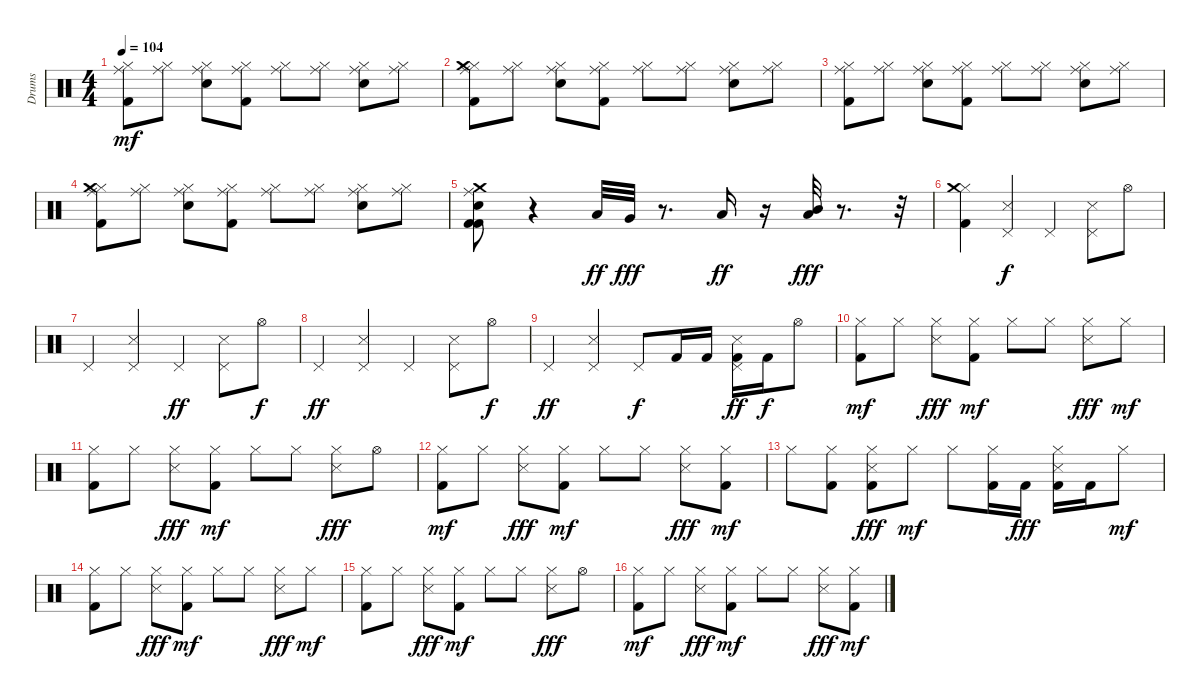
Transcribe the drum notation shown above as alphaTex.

\track ("Drums" "Drums") {instrument percussion}
\staff {score}
\articulation defaults
\ts (4 4)
\tempo 104
\clef neutral
\ks c
("Kick (hit) 2" "Hi-Hat (closed)" "Ride (middle)").8{dy mf} ("Hi-Hat (closed)" "Ride (middle)").8 ("Snare (hit) 2" "Hi-Hat (closed)" "Ride (middle)").8 ("Kick (hit) 2" "Hi-Hat (closed)" "Ride (middle)").8 ("Hi-Hat (closed)" "Ride (middle)").8 ("Hi-Hat (closed)" "Ride (middle)").8 ("Snare (hit) 2" "Hi-Hat (closed)" "Ride (middle)").8 ("Hi-Hat (closed)" "Ride (middle)").8 |
("Kick (hit) 2" "Hi-Hat (closed)" "Crash medium (hit)" "Ride (middle)").8 ("Hi-Hat (closed)" "Ride (middle)").8 ("Snare (hit) 2" "Hi-Hat (closed)" "Ride (middle)").8 ("Kick (hit) 2" "Hi-Hat (closed)" "Ride (middle)").8 ("Hi-Hat (closed)" "Ride (middle)").8 ("Hi-Hat (closed)" "Ride (middle)").8 ("Snare (hit) 2" "Hi-Hat (closed)" "Ride (middle)").8 ("Hi-Hat (closed)" "Ride (middle)").8 |
("Kick (hit) 2" "Hi-Hat (closed)" "Ride (middle)").8 ("Hi-Hat (closed)" "Ride (middle)").8 ("Snare (hit) 2" "Hi-Hat (closed)" "Ride (middle)").8 ("Kick (hit) 2" "Hi-Hat (closed)" "Ride (middle)").8 ("Hi-Hat (closed)" "Ride (middle)").8 ("Hi-Hat (closed)" "Ride (middle)").8 ("Snare (hit) 2" "Hi-Hat (closed)" "Ride (middle)").8 ("Hi-Hat (closed)" "Ride (middle)").8 |
("Kick (hit) 2" "Hi-Hat (closed)" "Crash medium (hit)" "Ride (middle)").8 ("Hi-Hat (closed)" "Ride (middle)").8 ("Snare (hit) 2" "Hi-Hat (closed)" "Ride (middle)").8 ("Kick (hit) 2" "Hi-Hat (closed)" "Ride (middle)").8 ("Hi-Hat (closed)" "Ride (middle)").8 ("Hi-Hat (closed)" "Ride (middle)").8 ("Snare (hit) 2" "Hi-Hat (closed)" "Ride (middle)").8 ("Hi-Hat (closed)" "Ride (middle)").8 |
("Kick (hit) 2" "Crash medium (hit)" "Kick (hit) 2" "Snare (hit) 2" "Ride (middle)").8 r.4 "Low Floor Tom (hit)".32{dy ff} "Very Low Tom (hit)".32{dy fff} r.8{d} "Low Tom (hit)".16{dy ff} r.16 ("Low Tom (hit)" "Mid Tom (hit)").32{dy fff} r.8{d} r.32 |
("Hi-Hat (closed)" "Crash medium (hit)" "Kick (hit) 2").4 ("Pedal Hi-Hat (hit)" "Metronome (hit)").4{dy f} "Pedal Hi-Hat (hit)".4 ("Pedal Hi-Hat (hit)" "Metronome (hit)").8 "Hi-Hat (open)".8 |
"Pedal Hi-Hat (hit)".4 ("Pedal Hi-Hat (hit)" "Metronome (hit)").4 "Pedal Hi-Hat (hit)".4{dy ff} ("Pedal Hi-Hat (hit)" "Metronome (hit)").8 "Hi-Hat (open)".8{dy f} |
"Pedal Hi-Hat (hit)".4{dy ff} ("Pedal Hi-Hat (hit)" "Metronome (hit)").4 "Pedal Hi-Hat (hit)".4 ("Pedal Hi-Hat (hit)" "Metronome (hit)").8 "Hi-Hat (open)".8{dy f} |
"Pedal Hi-Hat (hit)".4{dy ff} ("Pedal Hi-Hat (hit)" "Metronome (hit)").4 "Pedal Hi-Hat (hit)".8{dy f} "Kick (hit) 2".16 "Kick (hit) 2".16 ("Pedal Hi-Hat (hit)" "Metronome (hit)" "Kick (hit) 2").16{dy ff} "Kick (hit) 2".16{dy f} "Hi-Hat (open)".8 |
("Kick (hit) 2" "Hi-Hat (closed)").8{dy mf} "Hi-Hat (closed)".8 ("Hi-Hat (closed)" "Metronome (hit)").8{dy fff} ("Kick (hit) 2" "Hi-Hat (closed)").8{dy mf} "Hi-Hat (closed)".8 "Hi-Hat (closed)".8 ("Hi-Hat (closed)" "Metronome (hit)").8{dy fff} "Hi-Hat (closed)".8{dy mf} |
("Kick (hit) 2" "Hi-Hat (closed)").8 "Hi-Hat (closed)".8 ("Hi-Hat (closed)" "Metronome (hit)").8{dy fff} ("Kick (hit) 2" "Hi-Hat (closed)").8{dy mf} "Hi-Hat (closed)".8 "Hi-Hat (closed)".8 ("Hi-Hat (closed)" "Metronome (hit)").8{dy fff} "Hi-Hat (open)".8 |
("Kick (hit) 2" "Hi-Hat (closed)").8{dy mf} "Hi-Hat (closed)".8 ("Hi-Hat (closed)" "Metronome (hit)").8{dy fff} ("Kick (hit) 2" "Hi-Hat (closed)").8{dy mf} "Hi-Hat (closed)".8 "Hi-Hat (closed)".8 ("Hi-Hat (closed)" "Metronome (hit)").8{dy fff} ("Kick (hit) 2" "Hi-Hat (closed)").8{dy mf} |
"Hi-Hat (closed)".8 ("Kick (hit) 2" "Hi-Hat (closed)").8 ("Kick (hit) 2" "Hi-Hat (closed)" "Metronome (hit)").8{dy fff} "Hi-Hat (closed)".8{dy mf} "Hi-Hat (closed)".8 ("Kick (hit) 2" "Hi-Hat (closed)").16 "Kick (hit) 2".16{dy fff} ("Kick (hit) 2" "Hi-Hat (closed)" "Metronome (hit)").16 "Kick (hit) 2".16 "Hi-Hat (closed)".8{dy mf} |
("Kick (hit) 2" "Hi-Hat (closed)").8 "Hi-Hat (closed)".8 ("Hi-Hat (closed)" "Metronome (hit)").8{dy fff} ("Kick (hit) 2" "Hi-Hat (closed)").8{dy mf} "Hi-Hat (closed)".8 "Hi-Hat (closed)".8 ("Hi-Hat (closed)" "Metronome (hit)").8{dy fff} "Hi-Hat (closed)".8{dy mf} |
("Kick (hit) 2" "Hi-Hat (closed)").8 "Hi-Hat (closed)".8 ("Hi-Hat (closed)" "Metronome (hit)").8{dy fff} ("Kick (hit) 2" "Hi-Hat (closed)").8{dy mf} "Hi-Hat (closed)".8 "Hi-Hat (closed)".8 ("Hi-Hat (closed)" "Metronome (hit)").8{dy fff} "Hi-Hat (open)".8 |
("Kick (hit) 2" "Hi-Hat (closed)").8{dy mf} "Hi-Hat (closed)".8 ("Hi-Hat (closed)" "Metronome (hit)").8{dy fff} ("Kick (hit) 2" "Hi-Hat (closed)").8{dy mf} "Hi-Hat (closed)".8 "Hi-Hat (closed)".8 ("Hi-Hat (closed)" "Metronome (hit)").8{dy fff} ("Kick (hit) 2" "Hi-Hat (closed)").8{dy mf}
